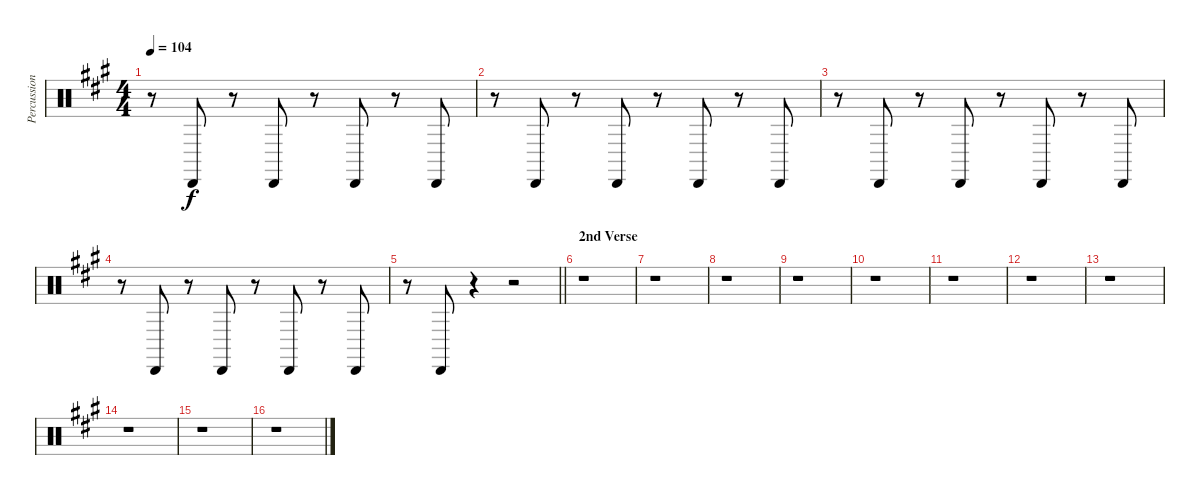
\track ("Percussion" "Percussion") {instrument percussion}
\staff {score}
\articulation defaults
\ts (4 4)
\tempo 104
\clef neutral
\ks a
r.8{dy f} "Cabasa (hit)".8 r.8 "Cabasa (hit)".8 r.8 "Cabasa (hit)".8 r.8 "Cabasa (hit)".8 |
r.8 "Cabasa (hit)".8 r.8 "Cabasa (hit)".8 r.8 "Cabasa (hit)".8 r.8 "Cabasa (hit)".8 |
r.8 "Cabasa (hit)".8 r.8 "Cabasa (hit)".8 r.8 "Cabasa (hit)".8 r.8 "Cabasa (hit)".8 |
r.8 "Cabasa (hit)".8 r.8 "Cabasa (hit)".8 r.8 "Cabasa (hit)".8 r.8 "Cabasa (hit)".8 |
\barLineRight lightlight
r.8 "Cabasa (hit)".8 r.4 r.2 |
\section ("" "2nd Verse")
r.1 |
r.1 |
r.1 |
r.1 |
r.1 |
r.1 |
r.1 |
r.1 |
r.1 |
r.1 |
r.1
